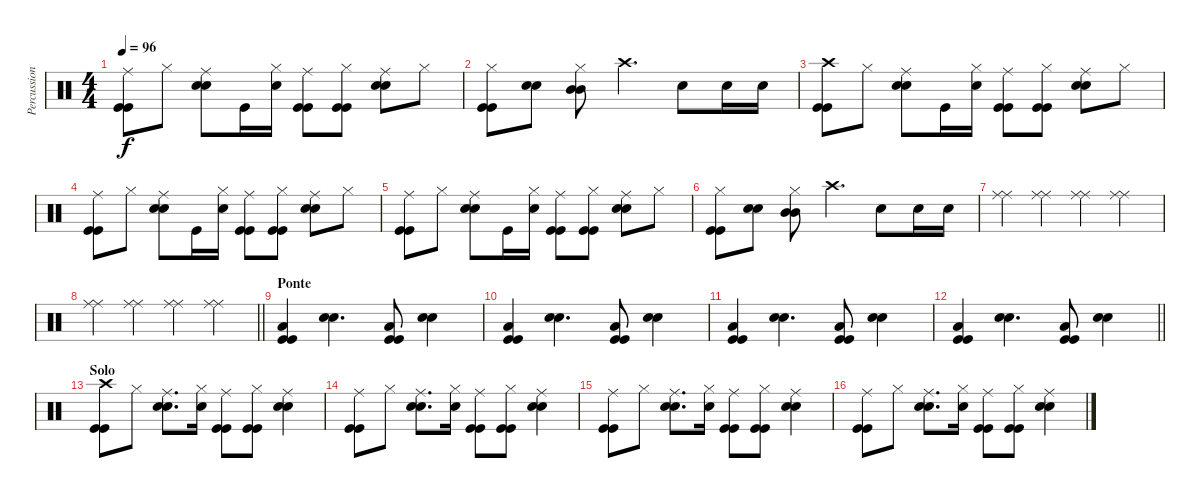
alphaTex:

\track ("Percussioni" "Percussion") {instrument percussion}
\staff {score}
\articulation defaults
\ts (4 4)
\tempo 96
\clef neutral
\ks c
("Ride (middle)" "Kick (hit)" "Kick (hit)").8{dy f} "Hi-Hat (closed)".8 ("Ride (middle)" "Snare (hit) 2" "Snare (hit) 2").8 "Kick (hit)".16 ("Hi-Hat (closed)" "Snare (hit) 2").16 ("Ride (middle)" "Kick (hit)" "Kick (hit)").8 ("Hi-Hat (closed)" "Kick (hit)" "Kick (hit)").8 ("Ride (middle)" "Snare (hit) 2" "Snare (hit) 2").8 "Hi-Hat (closed)".8 |
("Hi-Hat (closed)" "Kick (hit)" "Kick (hit)").8 ("Snare (hit) 2" "Snare (hit) 2").8 ("Hi-Hat (closed)" "Mid Tom (hit)" "Mid Tom (hit)").8 "Crash high (hit)".4{d} "Snare (hit) 2".8 "Snare (hit) 2".16 "Snare (hit) 2".16 |
("Crash high (hit)" "Kick (hit)" "Kick (hit)").8 "Hi-Hat (closed)".8 ("Ride (middle)" "Snare (hit) 2" "Snare (hit) 2").8 "Kick (hit)".16 ("Hi-Hat (closed)" "Snare (hit) 2").16 ("Ride (middle)" "Kick (hit)" "Kick (hit)").8 ("Hi-Hat (closed)" "Kick (hit)" "Kick (hit)").8 ("Ride (middle)" "Snare (hit) 2" "Snare (hit) 2").8 "Hi-Hat (closed)".8 |
("Ride (middle)" "Kick (hit)" "Kick (hit)").8 "Hi-Hat (closed)".8 ("Ride (middle)" "Snare (hit) 2" "Snare (hit) 2").8 "Kick (hit)".16 ("Hi-Hat (closed)" "Snare (hit) 2").16 ("Ride (middle)" "Kick (hit)" "Kick (hit)").8 ("Hi-Hat (closed)" "Kick (hit)" "Kick (hit)").8 ("Ride (middle)" "Snare (hit) 2" "Snare (hit) 2").8 "Hi-Hat (closed)".8 |
("Ride (middle)" "Kick (hit)" "Kick (hit)").8 "Hi-Hat (closed)".8 ("Ride (middle)" "Snare (hit) 2" "Snare (hit) 2").8 "Kick (hit)".16 ("Hi-Hat (closed)" "Snare (hit) 2").16 ("Ride (middle)" "Kick (hit)" "Kick (hit)").8 ("Hi-Hat (closed)" "Kick (hit)" "Kick (hit)").8 ("Ride (middle)" "Snare (hit) 2" "Snare (hit) 2").8 "Hi-Hat (closed)".8 |
("Hi-Hat (closed)" "Kick (hit)" "Kick (hit)").8 ("Snare (hit) 2" "Snare (hit) 2").8 ("Hi-Hat (closed)" "Mid Tom (hit)" "Mid Tom (hit)").8 "Crash high (hit)".4{d} "Snare (hit) 2".8 "Snare (hit) 2".16 "Snare (hit) 2".16 |
("Ride (middle)" "Ride (middle)").4 ("Ride (middle)" "Ride (middle)").4 ("Ride (middle)" "Ride (middle)").4 ("Ride (middle)" "Ride (middle)").4 |
\barLineRight lightlight
("Ride (middle)" "Ride (middle)").4 ("Ride (middle)" "Ride (middle)").4 ("Ride (middle)" "Ride (middle)").4 ("Ride (middle)" "Ride (middle)").4 |
\section ("" "Ponte")
("Low Floor Tom (hit)" "Kick (hit)" "Kick (hit)").4 ("Snare (hit) 2" "Snare (hit) 2").4{d} ("Low Floor Tom (hit)" "Kick (hit)" "Kick (hit)").8 ("Snare (hit) 2" "Snare (hit) 2").4 |
("Low Floor Tom (hit)" "Kick (hit)" "Kick (hit)").4 ("Snare (hit) 2" "Snare (hit) 2").4{d} ("Low Floor Tom (hit)" "Kick (hit)" "Kick (hit)").8 ("Snare (hit) 2" "Snare (hit) 2").4 |
("Low Floor Tom (hit)" "Kick (hit)" "Kick (hit)").4 ("Snare (hit) 2" "Snare (hit) 2").4{d} ("Low Floor Tom (hit)" "Kick (hit)" "Kick (hit)").8 ("Snare (hit) 2" "Snare (hit) 2").4 |
\barLineRight lightlight
("Low Floor Tom (hit)" "Kick (hit)" "Kick (hit)").4 ("Snare (hit) 2" "Snare (hit) 2").4{d} ("Low Floor Tom (hit)" "Kick (hit)" "Kick (hit)").8 ("Snare (hit) 2" "Snare (hit) 2").4 |
\section ("" "Solo")
("Crash high (hit)" "Kick (hit)" "Kick (hit)").8 "Hi-Hat (closed)".8 ("Ride (middle)" "Snare (hit) 2" "Snare (hit) 2").8{d} ("Hi-Hat (closed)" "Snare (hit) 2").16 ("Ride (middle)" "Kick (hit)" "Kick (hit)").8 ("Hi-Hat (closed)" "Kick (hit)" "Kick (hit)").8 ("Ride (middle)" "Snare (hit) 2" "Snare (hit) 2").4 |
("Ride (middle)" "Kick (hit)" "Kick (hit)").8 "Hi-Hat (closed)".8 ("Ride (middle)" "Snare (hit) 2" "Snare (hit) 2").8{d} ("Hi-Hat (closed)" "Snare (hit) 2").16 ("Ride (middle)" "Kick (hit)" "Kick (hit)").8 ("Hi-Hat (closed)" "Kick (hit)" "Kick (hit)").8 ("Ride (middle)" "Snare (hit) 2" "Snare (hit) 2").4 |
("Ride (middle)" "Kick (hit)" "Kick (hit)").8 "Hi-Hat (closed)".8 ("Ride (middle)" "Snare (hit) 2" "Snare (hit) 2").8{d} ("Hi-Hat (closed)" "Snare (hit) 2").16 ("Ride (middle)" "Kick (hit)" "Kick (hit)").8 ("Hi-Hat (closed)" "Kick (hit)" "Kick (hit)").8 ("Ride (middle)" "Snare (hit) 2" "Snare (hit) 2").4 |
("Ride (middle)" "Kick (hit)" "Kick (hit)").8 "Hi-Hat (closed)".8 ("Ride (middle)" "Snare (hit) 2" "Snare (hit) 2").8{d} ("Hi-Hat (closed)" "Snare (hit) 2").16 ("Ride (middle)" "Kick (hit)" "Kick (hit)").8 ("Hi-Hat (closed)" "Kick (hit)" "Kick (hit)").8 ("Ride (middle)" "Snare (hit) 2" "Snare (hit) 2").4
